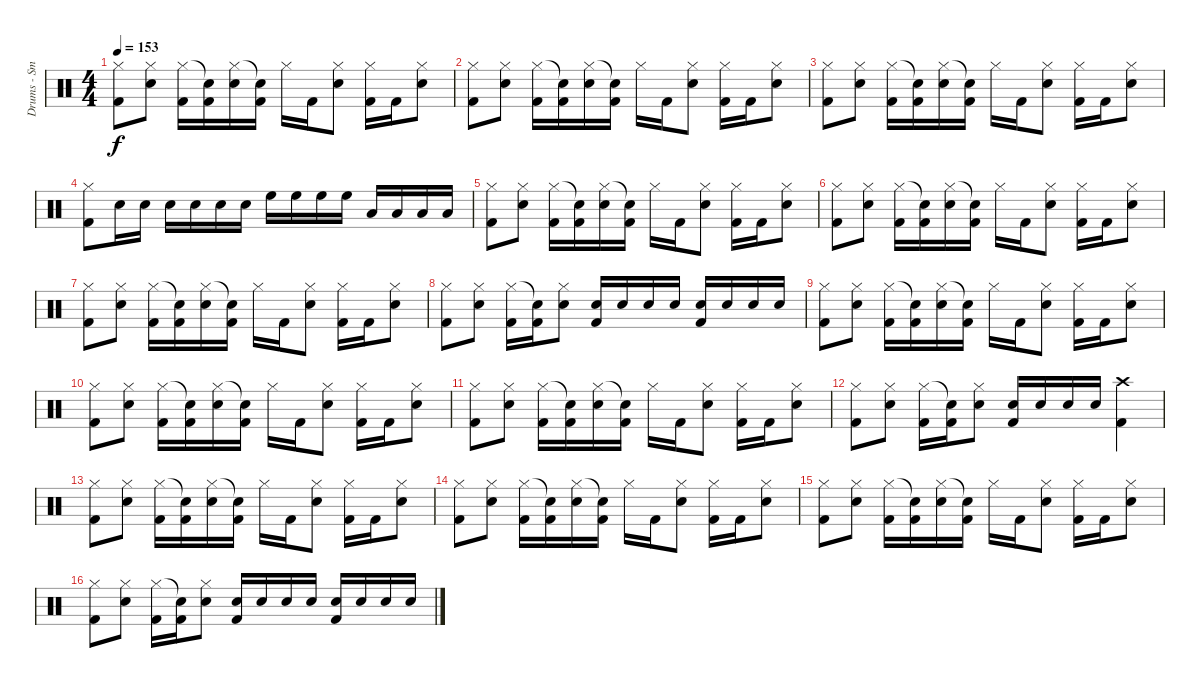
\track ("Drums - Smelly" "Drums - Sm") {instrument percussion}
\staff {score}
\articulation defaults
\ts (4 4)
\tempo 153
\clef neutral
\ks c
("Hi-Hat (closed)" "Kick (hit) 2").8{dy f} ("Hi-Hat (closed)" "Snare (hit) 2").8 ("Hi-Hat (closed)" "Kick (hit) 2").16 ("Snare (hit)"{t} "Kick (hit) 2").16 ("Hi-Hat (closed)" "Snare (hit) 2").16 ("Snare (hit)"{t} "Kick (hit) 2").16 "Hi-Hat (closed)".16 "Kick (hit) 2".16 ("Hi-Hat (closed)" "Snare (hit) 2").8 ("Hi-Hat (closed)" "Kick (hit) 2").16 "Kick (hit) 2".16 ("Hi-Hat (closed)" "Snare (hit) 2").8 |
("Hi-Hat (closed)" "Kick (hit) 2").8 ("Hi-Hat (closed)" "Snare (hit) 2").8 ("Hi-Hat (closed)" "Kick (hit) 2").16 ("Snare (hit)"{t} "Kick (hit) 2").16 ("Hi-Hat (closed)" "Snare (hit) 2").16 ("Snare (hit)"{t} "Kick (hit) 2").16 "Hi-Hat (closed)".16 "Kick (hit) 2".16 ("Hi-Hat (closed)" "Snare (hit) 2").8 ("Hi-Hat (closed)" "Kick (hit) 2").16 "Kick (hit) 2".16 ("Hi-Hat (closed)" "Snare (hit) 2").8 |
("Hi-Hat (closed)" "Kick (hit) 2").8 ("Hi-Hat (closed)" "Snare (hit) 2").8 ("Hi-Hat (closed)" "Kick (hit) 2").16 ("Snare (hit)"{t} "Kick (hit) 2").16 ("Hi-Hat (closed)" "Snare (hit) 2").16 ("Snare (hit)"{t} "Kick (hit) 2").16 "Hi-Hat (closed)".16 "Kick (hit) 2".16 ("Hi-Hat (closed)" "Snare (hit) 2").8 ("Hi-Hat (closed)" "Kick (hit) 2").16 "Kick (hit) 2".16 ("Hi-Hat (closed)" "Snare (hit) 2").8 |
("Hi-Hat (closed)" "Kick (hit) 2").8 "Snare (hit) 2".16 "Snare (hit) 2".16 "Snare (hit) 2".16 "Snare (hit) 2".16 "Snare (hit) 2".16 "Snare (hit) 2".16 "High Floor Tom (hit)".16 "High Floor Tom (hit)".16 "High Floor Tom (hit)".16 "High Floor Tom (hit)".16 "Low Floor Tom (hit)".16 "Low Floor Tom (hit)".16 "Low Floor Tom (hit)".16 "Low Floor Tom (hit)".16 |
("Hi-Hat (closed)" "Kick (hit) 2").8 ("Hi-Hat (closed)" "Snare (hit) 2").8 ("Hi-Hat (closed)" "Kick (hit) 2").16 ("Snare (hit)"{t} "Kick (hit) 2").16 ("Hi-Hat (closed)" "Snare (hit) 2").16 ("Snare (hit)"{t} "Kick (hit) 2").16 "Hi-Hat (closed)".16 "Kick (hit) 2".16 ("Hi-Hat (closed)" "Snare (hit) 2").8 ("Hi-Hat (closed)" "Kick (hit) 2").16 "Kick (hit) 2".16 ("Hi-Hat (closed)" "Snare (hit) 2").8 |
("Hi-Hat (closed)" "Kick (hit) 2").8 ("Hi-Hat (closed)" "Snare (hit) 2").8 ("Hi-Hat (closed)" "Kick (hit) 2").16 ("Snare (hit)"{t} "Kick (hit) 2").16 ("Hi-Hat (closed)" "Snare (hit) 2").16 ("Snare (hit)"{t} "Kick (hit) 2").16 "Hi-Hat (closed)".16 "Kick (hit) 2".16 ("Hi-Hat (closed)" "Snare (hit) 2").8 ("Hi-Hat (closed)" "Kick (hit) 2").16 "Kick (hit) 2".16 ("Hi-Hat (closed)" "Snare (hit) 2").8 |
("Hi-Hat (closed)" "Kick (hit) 2").8 ("Hi-Hat (closed)" "Snare (hit) 2").8 ("Hi-Hat (closed)" "Kick (hit) 2").16 ("Snare (hit)"{t} "Kick (hit) 2").16 ("Hi-Hat (closed)" "Snare (hit) 2").16 ("Snare (hit)"{t} "Kick (hit) 2").16 "Hi-Hat (closed)".16 "Kick (hit) 2".16 ("Hi-Hat (closed)" "Snare (hit) 2").8 ("Hi-Hat (closed)" "Kick (hit) 2").16 "Kick (hit) 2".16 ("Hi-Hat (closed)" "Snare (hit) 2").8 |
("Hi-Hat (closed)" "Kick (hit) 2").8 ("Hi-Hat (closed)" "Snare (hit) 2").8 ("Hi-Hat (closed)" "Kick (hit) 2").16 ("Snare (hit)"{t} "Kick (hit) 2").16 ("Hi-Hat (closed)" "Snare (hit) 2").8 ("Snare (hit) 2" "Kick (hit) 2").16 "Snare (hit) 2".16 "Snare (hit) 2".16 "Snare (hit) 2".16 ("Snare (hit) 2" "Kick (hit) 2").16 "Snare (hit) 2".16 "Snare (hit) 2".16 "Snare (hit) 2".16 |
("Hi-Hat (closed)" "Kick (hit) 2").8 ("Hi-Hat (closed)" "Snare (hit) 2").8 ("Hi-Hat (closed)" "Kick (hit) 2").16 ("Snare (hit)"{t} "Kick (hit) 2").16 ("Hi-Hat (closed)" "Snare (hit) 2").16 ("Snare (hit)"{t} "Kick (hit) 2").16 "Hi-Hat (closed)".16 "Kick (hit) 2".16 ("Hi-Hat (closed)" "Snare (hit) 2").8 ("Hi-Hat (closed)" "Kick (hit) 2").16 "Kick (hit) 2".16 ("Hi-Hat (closed)" "Snare (hit) 2").8 |
("Hi-Hat (closed)" "Kick (hit) 2").8 ("Hi-Hat (closed)" "Snare (hit) 2").8 ("Hi-Hat (closed)" "Kick (hit) 2").16 ("Snare (hit)"{t} "Kick (hit) 2").16 ("Hi-Hat (closed)" "Snare (hit) 2").16 ("Snare (hit)"{t} "Kick (hit) 2").16 "Hi-Hat (closed)".16 "Kick (hit) 2".16 ("Hi-Hat (closed)" "Snare (hit) 2").8 ("Hi-Hat (closed)" "Kick (hit) 2").16 "Kick (hit) 2".16 ("Hi-Hat (closed)" "Snare (hit) 2").8 |
("Hi-Hat (closed)" "Kick (hit) 2").8 ("Hi-Hat (closed)" "Snare (hit) 2").8 ("Hi-Hat (closed)" "Kick (hit) 2").16 ("Snare (hit)"{t} "Kick (hit) 2").16 ("Hi-Hat (closed)" "Snare (hit) 2").16 ("Snare (hit)"{t} "Kick (hit) 2").16 "Hi-Hat (closed)".16 "Kick (hit) 2".16 ("Hi-Hat (closed)" "Snare (hit) 2").8 ("Hi-Hat (closed)" "Kick (hit) 2").16 "Kick (hit) 2".16 ("Hi-Hat (closed)" "Snare (hit) 2").8 |
("Hi-Hat (closed)" "Kick (hit) 2").8 ("Hi-Hat (closed)" "Snare (hit) 2").8 ("Hi-Hat (closed)" "Kick (hit) 2").16 ("Snare (hit)"{t} "Kick (hit) 2").16 ("Hi-Hat (closed)" "Snare (hit) 2").8 ("Snare (hit) 2" "Kick (hit) 2").16 "Snare (hit) 2".16 "Snare (hit) 2".16 "Snare (hit) 2".16 ("Crash high (hit)" "Kick (hit) 2").4 |
("Hi-Hat (closed)" "Kick (hit) 2").8 ("Hi-Hat (closed)" "Snare (hit) 2").8 ("Hi-Hat (closed)" "Kick (hit) 2").16 ("Snare (hit)"{t} "Kick (hit) 2").16 ("Hi-Hat (closed)" "Snare (hit) 2").16 ("Snare (hit)"{t} "Kick (hit) 2").16 "Hi-Hat (closed)".16 "Kick (hit) 2".16 ("Hi-Hat (closed)" "Snare (hit) 2").8 ("Hi-Hat (closed)" "Kick (hit) 2").16 "Kick (hit) 2".16 ("Hi-Hat (closed)" "Snare (hit) 2").8 |
("Hi-Hat (closed)" "Kick (hit) 2").8 ("Hi-Hat (closed)" "Snare (hit) 2").8 ("Hi-Hat (closed)" "Kick (hit) 2").16 ("Snare (hit)"{t} "Kick (hit) 2").16 ("Hi-Hat (closed)" "Snare (hit) 2").16 ("Snare (hit)"{t} "Kick (hit) 2").16 "Hi-Hat (closed)".16 "Kick (hit) 2".16 ("Hi-Hat (closed)" "Snare (hit) 2").8 ("Hi-Hat (closed)" "Kick (hit) 2").16 "Kick (hit) 2".16 ("Hi-Hat (closed)" "Snare (hit) 2").8 |
("Hi-Hat (closed)" "Kick (hit) 2").8 ("Hi-Hat (closed)" "Snare (hit) 2").8 ("Hi-Hat (closed)" "Kick (hit) 2").16 ("Snare (hit)"{t} "Kick (hit) 2").16 ("Hi-Hat (closed)" "Snare (hit) 2").16 ("Snare (hit)"{t} "Kick (hit) 2").16 "Hi-Hat (closed)".16 "Kick (hit) 2".16 ("Hi-Hat (closed)" "Snare (hit) 2").8 ("Hi-Hat (closed)" "Kick (hit) 2").16 "Kick (hit) 2".16 ("Hi-Hat (closed)" "Snare (hit) 2").8 |
("Hi-Hat (closed)" "Kick (hit) 2").8 ("Hi-Hat (closed)" "Snare (hit) 2").8 ("Hi-Hat (closed)" "Kick (hit) 2").16 ("Snare (hit)"{t} "Kick (hit) 2").16 ("Hi-Hat (closed)" "Snare (hit) 2").8 ("Snare (hit) 2" "Kick (hit) 2").16 "Snare (hit) 2".16 "Snare (hit) 2".16 "Snare (hit) 2".16 ("Snare (hit) 2" "Kick (hit) 2").16 "Snare (hit) 2".16 "Snare (hit) 2".16 "Snare (hit) 2".16
